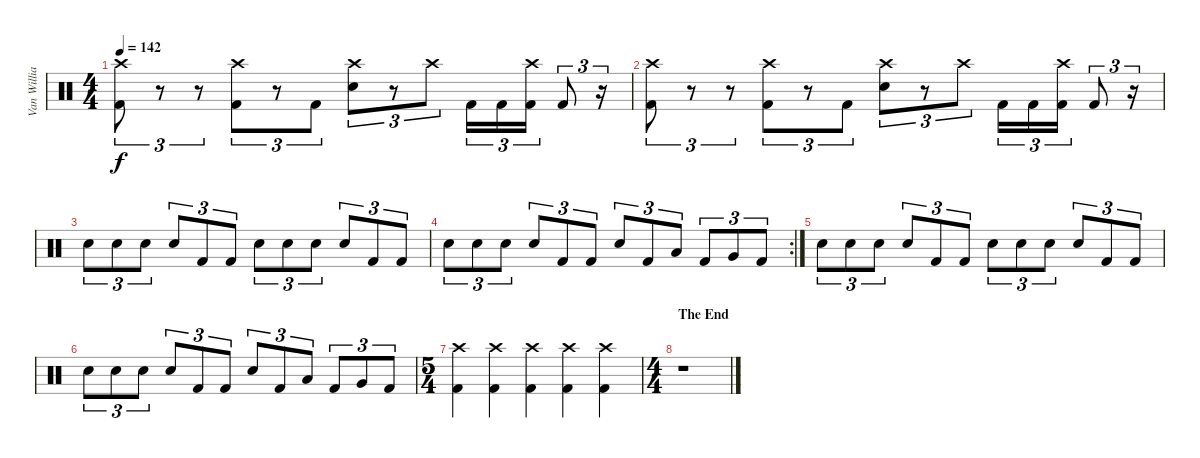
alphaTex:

\track ("Van Williams" "Van Willia") {instrument percussion}
\staff {score}
\articulation defaults
\ts (4 4)
\tempo 142
\clef neutral
\ks c
("Crash high (hit)" "Kick (hit) 2").8{tu (3 2) dy f} r.8{tu (3 2)} r.8{tu (3 2)} ("Crash high (hit)" "Kick (hit) 2").8{tu (3 2)} r.8{tu (3 2)} "Kick (hit) 2".8{tu (3 2)} ("Crash high (hit)" "Electric Snare (hit)").8{tu (3 2)} r.8{tu (3 2)} "Crash high (hit)".8{tu (3 2)} "Kick (hit) 2".16{tu (3 2)} "Kick (hit) 2".16{tu (3 2)} ("Crash high (hit)" "Kick (hit) 2").16{tu (3 2)} "Kick (hit) 2".8{tu (3 2)} r.16{tu (3 2)} |
("Crash high (hit)" "Kick (hit) 2").8{tu (3 2)} r.8{tu (3 2)} r.8{tu (3 2)} ("Crash high (hit)" "Kick (hit) 2").8{tu (3 2)} r.8{tu (3 2)} "Kick (hit) 2".8{tu (3 2)} ("Crash high (hit)" "Electric Snare (hit)").8{tu (3 2)} r.8{tu (3 2)} "Crash high (hit)".8{tu (3 2)} "Kick (hit) 2".16{tu (3 2)} "Kick (hit) 2".16{tu (3 2)} ("Crash high (hit)" "Kick (hit) 2").16{tu (3 2)} "Kick (hit) 2".8{tu (3 2)} r.16{tu (3 2)} |
"Electric Snare (hit)".8{tu (3 2)} "Electric Snare (hit)".8{tu (3 2)} "Electric Snare (hit)".8{tu (3 2)} "Electric Snare (hit)".8{tu (3 2)} "Kick (hit) 2".8{tu (3 2)} "Kick (hit) 2".8{tu (3 2)} "Electric Snare (hit)".8{tu (3 2)} "Electric Snare (hit)".8{tu (3 2)} "Electric Snare (hit)".8{tu (3 2)} "Electric Snare (hit)".8{tu (3 2)} "Kick (hit) 2".8{tu (3 2)} "Kick (hit) 2".8{tu (3 2)} |
\rc 2 "Electric Snare (hit)".8{tu (3 2)} "Electric Snare (hit)".8{tu (3 2)} "Electric Snare (hit)".8{tu (3 2)} "Electric Snare (hit)".8{tu (3 2)} "Kick (hit) 2".8{tu (3 2)} "Kick (hit) 2".8{tu (3 2)} "Electric Snare (hit)".8{tu (3 2)} "Kick (hit) 2".8{tu (3 2)} "Low Tom (hit)".8{tu (3 2)} "Kick (hit) 2".8{tu (3 2)} "Very Low Tom (hit)".8{tu (3 2)} "Kick (hit) 2".8{tu (3 2)}
|
"Electric Snare (hit)".8{tu (3 2)} "Electric Snare (hit)".8{tu (3 2)} "Electric Snare (hit)".8{tu (3 2)} "Electric Snare (hit)".8{tu (3 2)} "Kick (hit) 2".8{tu (3 2)} "Kick (hit) 2".8{tu (3 2)} "Electric Snare (hit)".8{tu (3 2)} "Electric Snare (hit)".8{tu (3 2)} "Electric Snare (hit)".8{tu (3 2)} "Electric Snare (hit)".8{tu (3 2)} "Kick (hit) 2".8{tu (3 2)} "Kick (hit) 2".8{tu (3 2)} |
"Electric Snare (hit)".8{tu (3 2)} "Electric Snare (hit)".8{tu (3 2)} "Electric Snare (hit)".8{tu (3 2)} "Electric Snare (hit)".8{tu (3 2)} "Kick (hit) 2".8{tu (3 2)} "Kick (hit) 2".8{tu (3 2)} "Electric Snare (hit)".8{tu (3 2)} "Kick (hit) 2".8{tu (3 2)} "Low Tom (hit)".8{tu (3 2)} "Kick (hit) 2".8{tu (3 2)} "Very Low Tom (hit)".8{tu (3 2)} "Kick (hit) 2".8{tu (3 2)} |
\ts (5 4)
("Crash high (hit)" "Kick (hit) 2").4 ("Crash high (hit)" "Kick (hit) 2").4 ("Crash high (hit)" "Kick (hit) 2").4 ("Crash high (hit)" "Kick (hit) 2").4 ("Crash high (hit)" "Kick (hit) 2").4 |
\ts (4 4)
\section ("" "The End")
r.1
